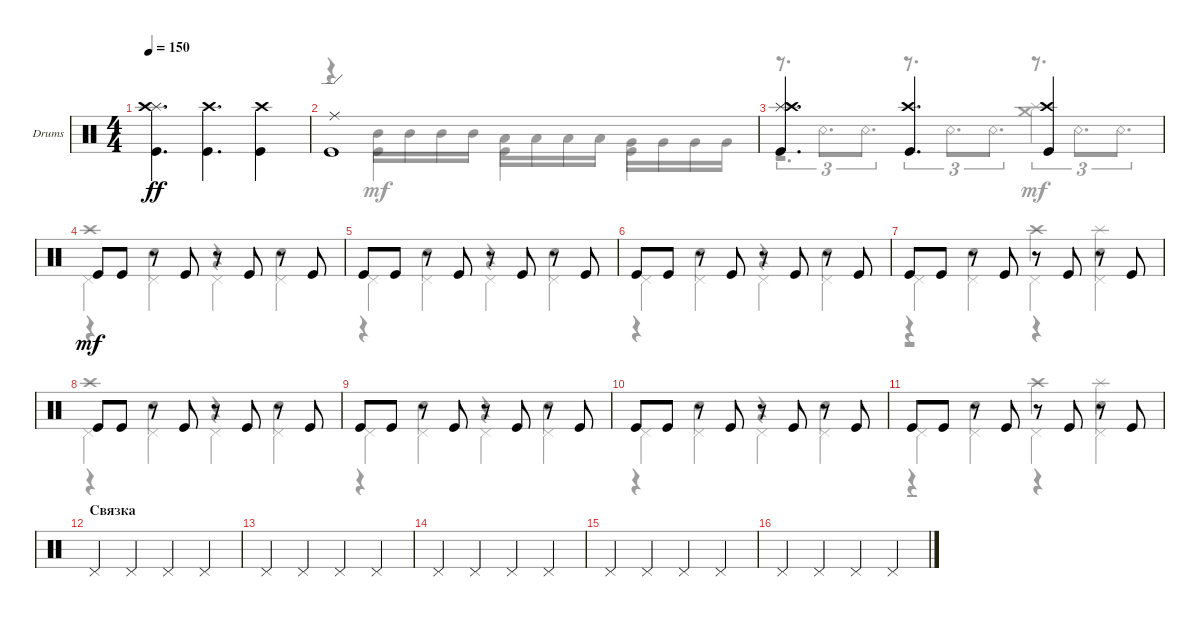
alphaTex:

\defaultSystemsLayout 4
\bracketExtendMode groupsimilarinstruments
\firstSystemTrackNameOrientation horizontal
\otherSystemsTrackNameOrientation horizontal
\track ("Drumkit" "Drums") {instrument percussion}
\staff {score}
\articulation defaults
\voice
\ts (4 4)
\tempo 150
\clef neutral
\ks c
("Kick (hit)" "Splash (hit)" "Crash high (hit)").4{d dy ff} ("Crash high (hit)" "Kick (hit)").4{d} ("Kick (hit)" "Crash high (hit)").4 |
("Ride (edge)" "Kick (hit)").1 |
("Kick (hit)" "Splash (hit)" "Crash high (hit)").4{d} ("Crash high (hit)" "Kick (hit)").4{d} ("Kick (hit)" "Crash high (hit)").4 |
"Kick (hit)".8{dy mf} "Kick (hit)".8 r.8 "Kick (hit)".8 r.8 "Kick (hit)".8 r.8 "Kick (hit)".8 |
"Kick (hit)".8 "Kick (hit)".8 r.8 "Kick (hit)".8 r.8 "Kick (hit)".8 r.8 "Kick (hit)".8 |
"Kick (hit)".8 "Kick (hit)".8 r.8 "Kick (hit)".8 r.8 "Kick (hit)".8 r.8 "Kick (hit)".8 |
"Kick (hit)".8 "Kick (hit)".8 r.8 "Kick (hit)".8 r.8 "Kick (hit)".8 r.8 "Kick (hit)".8 |
"Kick (hit)".8 "Kick (hit)".8 r.8 "Kick (hit)".8 r.8 "Kick (hit)".8 r.8 "Kick (hit)".8 |
"Kick (hit)".8 "Kick (hit)".8 r.8 "Kick (hit)".8 r.8 "Kick (hit)".8 r.8 "Kick (hit)".8 |
"Kick (hit)".8 "Kick (hit)".8 r.8 "Kick (hit)".8 r.8 "Kick (hit)".8 r.8 "Kick (hit)".8 |
"Kick (hit)".8 "Kick (hit)".8 r.8 "Kick (hit)".8 r.8 "Kick (hit)".8 r.8 "Kick (hit)".8 |
\section ("" "Связка")
"Pedal Hi-Hat (hit)".4 "Pedal Hi-Hat (hit)".4 "Pedal Hi-Hat (hit)".4 "Pedal Hi-Hat (hit)".4 |
"Pedal Hi-Hat (hit)".4 "Pedal Hi-Hat (hit)".4 "Pedal Hi-Hat (hit)".4 "Pedal Hi-Hat (hit)".4 |
"Pedal Hi-Hat (hit)".4 "Pedal Hi-Hat (hit)".4 "Pedal Hi-Hat (hit)".4 "Pedal Hi-Hat (hit)".4 |
"Pedal Hi-Hat (hit)".4 "Pedal Hi-Hat (hit)".4 "Pedal Hi-Hat (hit)".4 "Pedal Hi-Hat (hit)".4 |
"Pedal Hi-Hat (hit)".4 "Pedal Hi-Hat (hit)".4 "Pedal Hi-Hat (hit)".4 "Pedal Hi-Hat (hit)".4
\voice
\clef neutral
\ottava regular
\simile none
\ks c
|
r.4 "Mid Tom (hit)".16 "Mid Tom (hit)".16 "Mid Tom (hit)".16 "Mid Tom (hit)".16 "Low Tom (hit)".16 "Low Tom (hit)".16 "Low Tom (hit)".16 "Low Tom (hit)".16 "Very Low Tom (hit)".16 "Very Low Tom (hit)".16 "Very Low Tom (hit)".16 "Very Low Tom (hit)".16 |
r.8{d tu (3 2)} "Snare (rim shot)".8{d tu (3 2)} "Snare (rim shot)".8{d tu (3 2)} r.8{d tu (3 2)} "Snare (rim shot)".8{d tu (3 2)} "Snare (rim shot)".8{d tu (3 2)} r.8{d tu (3 2)} "Snare (rim shot)".8{d tu (3 2)} "Snare (rim shot)".8{d tu (3 2)} |
"Pedal Hi-Hat (hit)".4{dy mf} "Pedal Hi-Hat (hit)".4 "Pedal Hi-Hat (hit)".4 "Pedal Hi-Hat (hit)".4 |
"Pedal Hi-Hat (hit)".4 "Pedal Hi-Hat (hit)".4 "Pedal Hi-Hat (hit)".4 "Pedal Hi-Hat (hit)".4 |
"Pedal Hi-Hat (hit)".4 "Pedal Hi-Hat (hit)".4 "Pedal Hi-Hat (hit)".4 "Pedal Hi-Hat (hit)".4 |
"Pedal Hi-Hat (hit)".4 "Pedal Hi-Hat (hit)".4 "Pedal Hi-Hat (hit)".4 "Pedal Hi-Hat (hit)".4 |
"Pedal Hi-Hat (hit)".4 "Pedal Hi-Hat (hit)".4 "Pedal Hi-Hat (hit)".4 "Pedal Hi-Hat (hit)".4 |
"Pedal Hi-Hat (hit)".4 "Pedal Hi-Hat (hit)".4 "Pedal Hi-Hat (hit)".4 "Pedal Hi-Hat (hit)".4 |
"Pedal Hi-Hat (hit)".4 "Pedal Hi-Hat (hit)".4 "Pedal Hi-Hat (hit)".4 "Pedal Hi-Hat (hit)".4 |
"Pedal Hi-Hat (hit)".4 "Pedal Hi-Hat (hit)".4 "Pedal Hi-Hat (hit)".4 "Pedal Hi-Hat (hit)".4 |
|
|
|
|
\voice
\clef neutral
\ottava regular
\simile none
\ks c
|
r.4 "Kick (hit)".4 "Kick (hit)".4 "Kick (hit)".4 |
|
r.4 "Snare (hit) 2".4{dy mf} r.4 "Snare (hit) 2".4 |
r.4 "Snare (hit) 2".4 r.4 "Snare (hit) 2".4 |
r.4 "Snare (hit) 2".4 r.4 "Snare (hit) 2".4 |
r.4 "Snare (hit) 2".4 r.4 "Snare (hit) 2".4 |
r.4 "Snare (hit) 2".4 r.4 "Snare (hit) 2".4 |
r.4 "Snare (hit) 2".4 r.4 "Snare (hit) 2".4 |
r.4 "Snare (hit) 2".4 r.4 "Snare (hit) 2".4 |
r.4 "Snare (hit) 2".4 r.4 "Snare (hit) 2".4 |
|
|
|
|
\voice
\clef neutral
\ottava regular
\simile none
\ks c
|
|
r.2{d} ("Crash medium (hit)" "Splash (hit)").4 |
"Crash high (hit)".1 |
|
|
r.2 "Crash high (hit)".4 "Splash (hit)".4 |
"Crash high (hit)".1 |
|
|
r.2 "Crash high (hit)".4 "Splash (hit)".4 |
|
|
|
|
